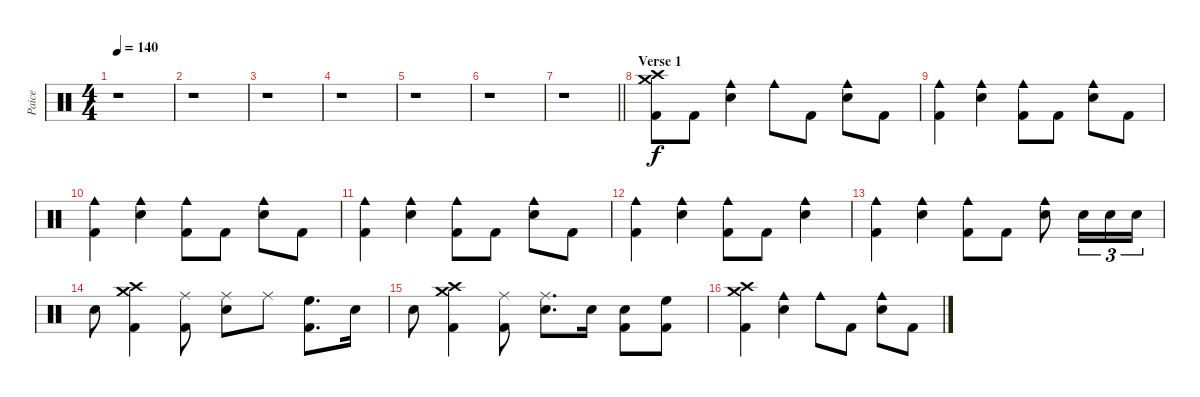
\track ("Paice" "Paice") {instrument percussion}
\staff {score}
\articulation defaults
\ts (4 4)
\tempo 140
\clef neutral
\ks c
r.1{dy f} |
r.1 |
r.1 |
r.1 |
r.1 |
r.1 |
\barLineRight lightlight
r.1 |
\section ("" "Verse 1")
("Crash high (hit)" "Crash medium (hit)" "Kick (hit) 2").8 "Kick (hit) 2".8 ("Cowbell medium (hit)" "Electric Snare (hit)").4 "Cowbell medium (hit)".8 "Kick (hit) 2".8 ("Cowbell medium (hit)" "Electric Snare (hit)").8 "Kick (hit) 2".8 |
("Cowbell medium (hit)" "Kick (hit) 2").4 ("Cowbell medium (hit)" "Electric Snare (hit)").4 ("Cowbell medium (hit)" "Kick (hit) 2").8 "Kick (hit) 2".8 ("Cowbell medium (hit)" "Electric Snare (hit)").8 "Kick (hit) 2".8 |
("Cowbell medium (hit)" "Kick (hit) 2").4 ("Cowbell medium (hit)" "Electric Snare (hit)").4 ("Cowbell medium (hit)" "Kick (hit) 2").8 "Kick (hit) 2".8 ("Cowbell medium (hit)" "Electric Snare (hit)").8 "Kick (hit) 2".8 |
("Cowbell medium (hit)" "Kick (hit) 2").4 ("Cowbell medium (hit)" "Electric Snare (hit)").4 ("Cowbell medium (hit)" "Kick (hit) 2").8 "Kick (hit) 2".8 ("Cowbell medium (hit)" "Electric Snare (hit)").8 "Kick (hit) 2".8 |
("Cowbell medium (hit)" "Kick (hit) 2").4 ("Cowbell medium (hit)" "Electric Snare (hit)").4 ("Cowbell medium (hit)" "Kick (hit) 2").8 "Kick (hit) 2".8 ("Cowbell medium (hit)" "Electric Snare (hit)").4 |
("Cowbell medium (hit)" "Kick (hit) 2").4 ("Cowbell medium (hit)" "Electric Snare (hit)").4 ("Cowbell medium (hit)" "Kick (hit) 2").8 "Kick (hit) 2".8 ("Cowbell medium (hit)" "Electric Snare (hit)").8 "Electric Snare (hit)".16{tu (3 2)} "Electric Snare (hit)".16{tu (3 2)} "Electric Snare (hit)".16{tu (3 2)} |
"Electric Snare (hit)".8 ("Crash high (hit)" "Crash medium (hit)" "Kick (hit) 2").4 ("Ride (middle)" "Kick (hit) 2").8 ("Ride (middle)" "Electric Snare (hit)").8 "Ride (middle)".8 ("High Floor Tom (hit)" "Kick (hit) 2").8{d} "Electric Snare (hit)".16 |
"Electric Snare (hit)".8 ("Crash high (hit)" "Crash medium (hit)" "Kick (hit) 2").4 ("Ride (middle)" "Kick (hit) 2").8 ("Ride (middle)" "Electric Snare (hit)").8{d} "Electric Snare (hit)".16 ("Electric Snare (hit)" "Kick (hit) 2").8 ("High Floor Tom (hit)" "Kick (hit) 2").8 |
("Crash high (hit)" "Crash medium (hit)" "Kick (hit) 2").4 ("Cowbell medium (hit)" "Electric Snare (hit)").4 "Cowbell medium (hit)".8 "Kick (hit) 2".8 ("Cowbell medium (hit)" "Electric Snare (hit)").8 "Kick (hit) 2".8
